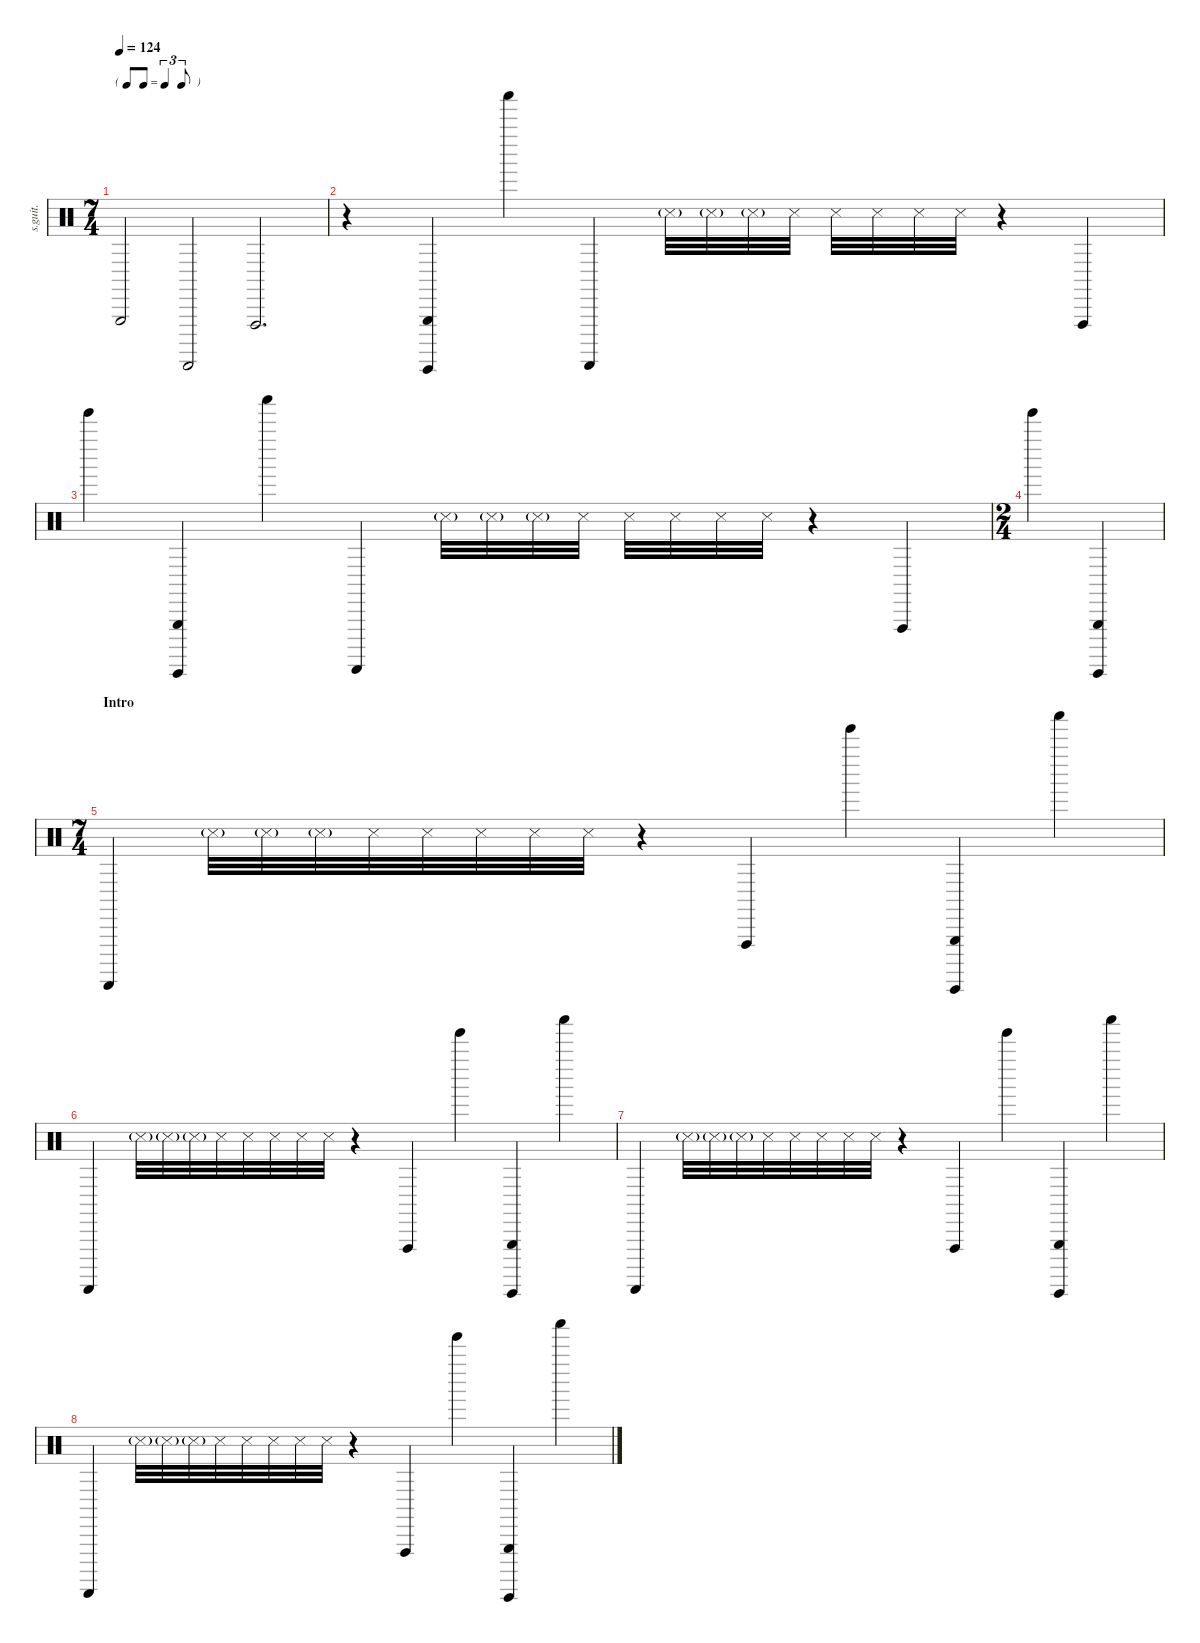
\defaultSystemsLayout 4
\hideDynamics
\bracketExtendMode nobrackets
\track ("Roger Waters & Nick Mason | Tape Loops & Sound Effects" "s.guit.") {instrument percussion}
\staff {score}
\articulation defaults
\ts (7 4)
\beaming (8 2 2 2 2)
\tf triplet8th
\tempo 124
\clef neutral
\ks c "Triangle (hit)".2{dy f} "Guiro (scrap-return)".2 "Vibraslap (hit)".2{d}
|
r.4 ("Guiro (hit)" "Triangle (hit)").4 "Shaker (hit)".4 "Guiro (scrap-return)".4 "Snare (side stick) 3"{g}.32{dy ff} "Snare (side stick) 3"{g}.32{dy fff} "Snare (side stick) 3"{g}.32 "Snare (side stick) 3".32{dy f} "Snare (side stick) 3".32 "Snare (side stick) 3".32{dy ff} "Snare (side stick) 3".32{dy fff} "Snare (side stick) 3".32 r.4 "Vibraslap (hit)".4{dy f} |
"Jingle Bell (hit)".4{dy mf} ("Guiro (hit)" "Triangle (hit)").4{dy f} "Shaker (hit)".4 "Guiro (scrap-return)".4 "Snare (side stick) 3"{g}.32{dy ff} "Snare (side stick) 3"{g}.32{dy fff} "Snare (side stick) 3"{g}.32 "Snare (side stick) 3".32{dy f} "Snare (side stick) 3".32 "Snare (side stick) 3".32{dy ff} "Snare (side stick) 3".32{dy fff} "Snare (side stick) 3".32 r.4 "Vibraslap (hit)".4{dy f} |
\ts (2 4)
\beaming (8 2 2 2 2)
"Jingle Bell (hit)".4{dy mf} ("Guiro (hit)" "Triangle (hit)").4{dy f} |
\ts (7 4)
\beaming (8 2 2 2 2)
\section ("" "Intro")
"Guiro (scrap-return)".4 "Snare (side stick) 3"{g}.32{dy ff} "Snare (side stick) 3"{g}.32{dy fff} "Snare (side stick) 3"{g}.32 "Snare (side stick) 3".32{dy f} "Snare (side stick) 3".32 "Snare (side stick) 3".32{dy ff} "Snare (side stick) 3".32{dy fff} "Snare (side stick) 3".32 r.4 "Vibraslap (hit)".4{dy f} "Jingle Bell (hit)".4{dy mf} ("Guiro (hit)" "Triangle (hit)").4{dy f} "Shaker (hit)".4 |
"Guiro (scrap-return)".4 "Snare (side stick) 3"{g}.32{dy ff} "Snare (side stick) 3"{g}.32{dy fff} "Snare (side stick) 3"{g}.32 "Snare (side stick) 3".32{dy f} "Snare (side stick) 3".32 "Snare (side stick) 3".32{dy ff} "Snare (side stick) 3".32{dy fff} "Snare (side stick) 3".32 r.4 "Vibraslap (hit)".4{dy f} "Jingle Bell (hit)".4{dy mf} ("Guiro (hit)" "Triangle (hit)").4{dy f} "Shaker (hit)".4 |
"Guiro (scrap-return)".4 "Snare (side stick) 3"{g}.32{dy ff} "Snare (side stick) 3"{g}.32{dy fff} "Snare (side stick) 3"{g}.32 "Snare (side stick) 3".32{dy f} "Snare (side stick) 3".32 "Snare (side stick) 3".32{dy ff} "Snare (side stick) 3".32{dy fff} "Snare (side stick) 3".32 r.4 "Vibraslap (hit)".4{dy f} "Jingle Bell (hit)".4{dy mf} ("Guiro (hit)" "Triangle (hit)").4{dy f} "Shaker (hit)".4 |
"Guiro (scrap-return)".4 "Snare (side stick) 3"{g}.32{dy ff} "Snare (side stick) 3"{g}.32{dy fff} "Snare (side stick) 3"{g}.32 "Snare (side stick) 3".32{dy f} "Snare (side stick) 3".32 "Snare (side stick) 3".32{dy ff} "Snare (side stick) 3".32{dy fff} "Snare (side stick) 3".32 r.4 "Vibraslap (hit)".4{dy f} "Jingle Bell (hit)".4{dy mf} ("Guiro (hit)" "Triangle (hit)").4{dy f} "Shaker (hit)".4
